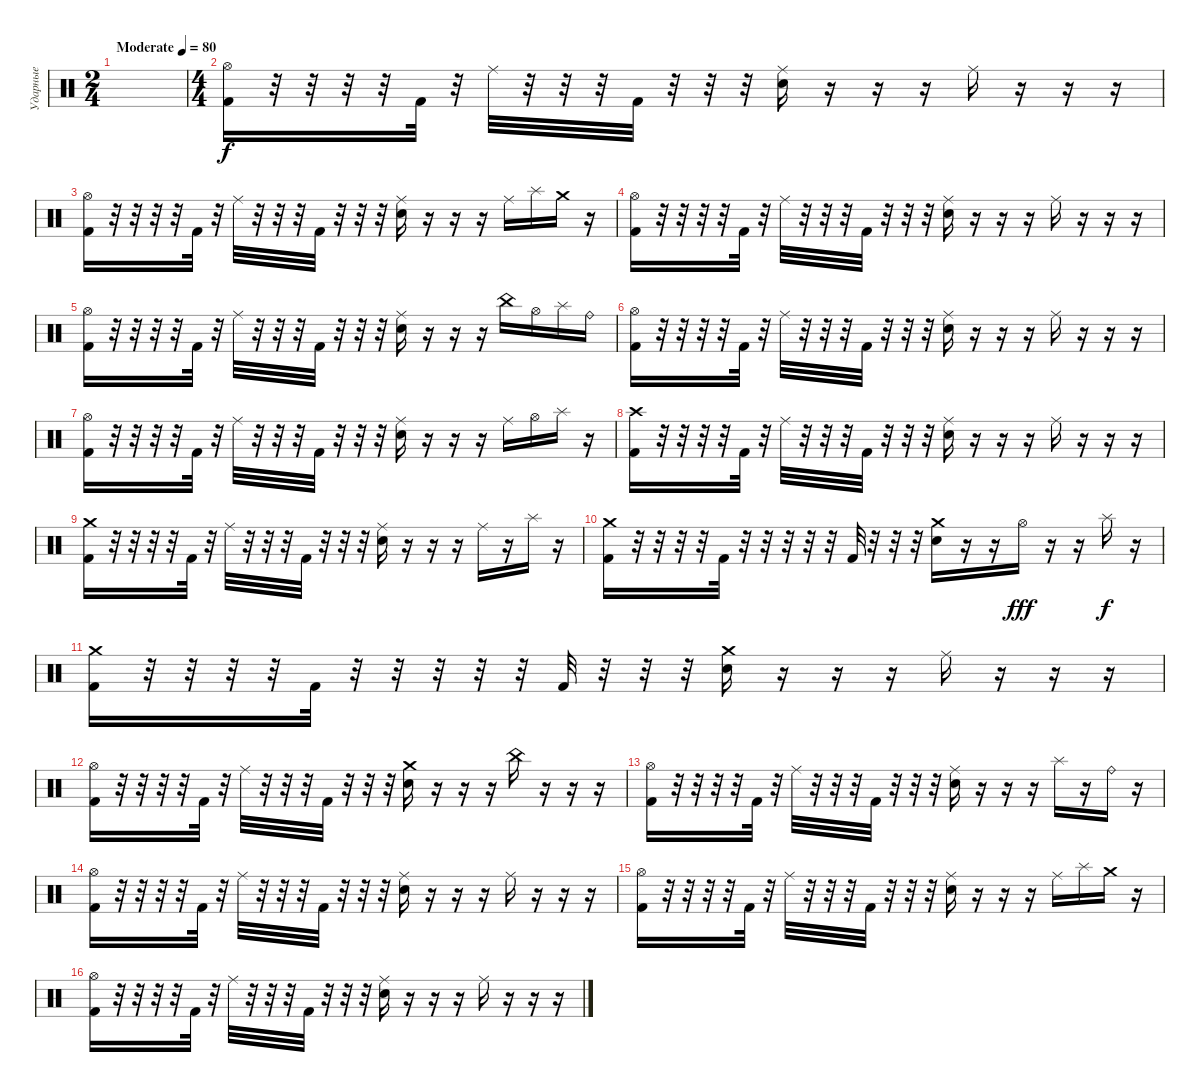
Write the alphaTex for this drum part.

\track ("Ударные" "Ударные") {instrument percussion}
\staff {score}
\articulation defaults
\ts (2 4)
\tempo (80 "Moderate")
\clef neutral
\ks c
|
\ts (4 4)
("Hi-Hat (open)" "Kick (hit) 2").16 r.32 r.32 r.32 r.32 "Kick (hit) 2".32 r.32 "Ride (middle)".32 r.32 r.32 r.32 "Kick (hit) 2".32 r.32 r.32 r.32 ("Ride (middle)" "Electric Snare (hit)").16 r.16 r.16 r.16 "Ride (middle)".16 r.16 r.16 r.16 |
("Hi-Hat (open)" "Kick (hit) 2").16 r.32 r.32 r.32 r.32 "Kick (hit) 2".32 r.32 "Ride (middle)".32 r.32 r.32 r.32 "Kick (hit) 2".32 r.32 r.32 r.32 ("Ride (middle)" "Electric Snare (hit)").16 r.16 r.16 r.16 "Ride (middle)".16 "Splash (hit)".16 "Crash medium (hit)".16 r.16 |
("Hi-Hat (open)" "Kick (hit) 2").16 r.32 r.32 r.32 r.32 "Kick (hit) 2".32 r.32 "Ride (middle)".32 r.32 r.32 r.32 "Kick (hit) 2".32 r.32 r.32 r.32 ("Ride (middle)" "Electric Snare (hit)").16 r.16 r.16 r.16 "Ride (middle)".16 r.16 r.16 r.16 |
("Hi-Hat (open)" "Kick (hit) 2").16 r.32 r.32 r.32 r.32 "Kick (hit) 2".32 r.32 "Ride (middle)".32 r.32 r.32 r.32 "Kick (hit) 2".32 r.32 r.32 r.32 ("Ride (middle)" "Electric Snare (hit)").16 r.16 r.16 r.16 "China (hit)".16 "Hi-Hat (open)".16 "Splash (hit)".16 "Ride (bell)".16 |
("Hi-Hat (open)" "Kick (hit) 2").16 r.32 r.32 r.32 r.32 "Kick (hit) 2".32 r.32 "Ride (middle)".32 r.32 r.32 r.32 "Kick (hit) 2".32 r.32 r.32 r.32 ("Ride (middle)" "Electric Snare (hit)").16 r.16 r.16 r.16 "Ride (middle)".16 r.16 r.16 r.16 |
("Hi-Hat (open)" "Kick (hit) 2").16 r.32 r.32 r.32 r.32 "Kick (hit) 2".32 r.32 "Ride (middle)".32 r.32 r.32 r.32 "Kick (hit) 2".32 r.32 r.32 r.32 ("Ride (middle)" "Electric Snare (hit)").16 r.16 r.16 r.16 "Ride (middle)".16 "Hi-Hat (open)".16 "Splash (hit)".16 r.16 |
("Crash high (hit)" "Kick (hit) 2").16 r.32 r.32 r.32 r.32 "Kick (hit) 2".32 r.32 "Ride (middle)".32 r.32 r.32 r.32 "Kick (hit) 2".32 r.32 r.32 r.32 ("Ride (middle)" "Electric Snare (hit)").16 r.16 r.16 r.16 "Ride (middle)".16 r.16 r.16 r.16 |
("Crash medium (hit)" "Kick (hit) 2").16 r.32 r.32 r.32 r.32 "Kick (hit) 2".32 r.32 "Ride (middle)".32 r.32 r.32 r.32 "Kick (hit) 2".32 r.32 r.32 r.32 ("Ride (middle)" "Electric Snare (hit)").16 r.16 r.16 r.16 "Ride (middle)".16 r.16 "Splash (hit)".16 r.16 |
("Crash medium (hit)" "Kick (hit) 2").16 r.32 r.32 r.32 r.32 "Kick (hit) 2".32 r.32 r.32 r.32 r.32 r.32 "Kick (hit) 2".32 r.32 r.32 r.32 ("Crash medium (hit)" "Electric Snare (hit)").16 r.16 r.16 "Hi-Hat (open)".16{dy fff} r.16 r.16 "Splash (hit)".16{dy f} r.16 |
("Crash medium (hit)" "Kick (hit) 2").16 r.32 r.32 r.32 r.32 "Kick (hit) 2".32 r.32 r.32 r.32 r.32 r.32 "Kick (hit) 2".32 r.32 r.32 r.32 ("Crash medium (hit)" "Electric Snare (hit)").16 r.16 r.16 r.16 "Ride (middle)".16 r.16 r.16 r.16 |
("Hi-Hat (open)" "Kick (hit) 2").16 r.32 r.32 r.32 r.32 "Kick (hit) 2".32 r.32 "Ride (middle)".32 r.32 r.32 r.32 "Kick (hit) 2".32 r.32 r.32 r.32 ("Crash medium (hit)" "Electric Snare (hit)").16 r.16 r.16 r.16 "China (hit)".16 r.16 r.16 r.16 |
("Hi-Hat (open)" "Kick (hit) 2").16 r.32 r.32 r.32 r.32 "Kick (hit) 2".32 r.32 "Ride (middle)".32 r.32 r.32 r.32 "Kick (hit) 2".32 r.32 r.32 r.32 ("Ride (middle)" "Electric Snare (hit)").16 r.16 r.16 r.16 "Splash (hit)".16 r.16 "Ride (bell)".16 r.16 |
("Hi-Hat (open)" "Kick (hit) 2").16 r.32 r.32 r.32 r.32 "Kick (hit) 2".32 r.32 "Ride (middle)".32 r.32 r.32 r.32 "Kick (hit) 2".32 r.32 r.32 r.32 ("Ride (middle)" "Electric Snare (hit)").16 r.16 r.16 r.16 "Ride (middle)".16 r.16 r.16 r.16 |
("Hi-Hat (open)" "Kick (hit) 2").16 r.32 r.32 r.32 r.32 "Kick (hit) 2".32 r.32 "Ride (middle)".32 r.32 r.32 r.32 "Kick (hit) 2".32 r.32 r.32 r.32 ("Ride (middle)" "Electric Snare (hit)").16 r.16 r.16 r.16 "Ride (middle)".16 "Splash (hit)".16 "Crash medium (hit)".16 r.16 |
("Hi-Hat (open)" "Kick (hit) 2").16 r.32 r.32 r.32 r.32 "Kick (hit) 2".32 r.32 "Ride (middle)".32 r.32 r.32 r.32 "Kick (hit) 2".32 r.32 r.32 r.32 ("Ride (middle)" "Electric Snare (hit)").16 r.16 r.16 r.16 "Ride (middle)".16 r.16 r.16 r.16
